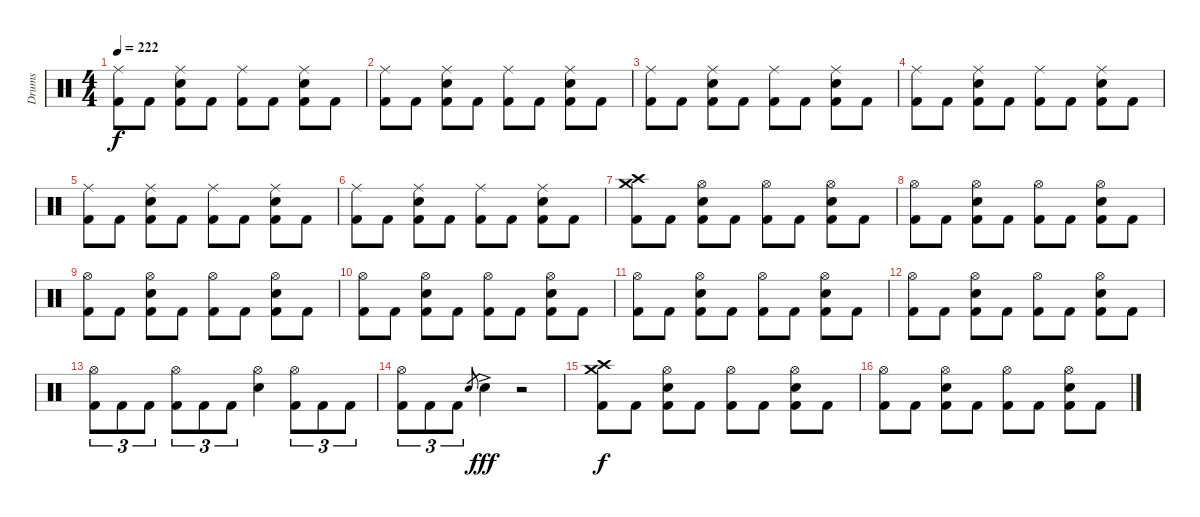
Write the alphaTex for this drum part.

\track ("Drums" "Drums") {instrument percussion}
\staff {score}
\articulation defaults
\ts (4 4)
\tempo 222
\clef neutral
\ks c
("Ride (middle)" "Kick (hit) 2").8{dy f} "Kick (hit) 2".8 ("Ride (middle)" "Electric Snare (hit)" "Kick (hit) 2").8 "Kick (hit) 2".8 ("Ride (middle)" "Kick (hit) 2").8 "Kick (hit) 2".8 ("Ride (middle)" "Electric Snare (hit)" "Kick (hit) 2").8 "Kick (hit) 2".8 |
("Ride (middle)" "Kick (hit) 2").8 "Kick (hit) 2".8 ("Ride (middle)" "Electric Snare (hit)" "Kick (hit) 2").8 "Kick (hit) 2".8 ("Ride (middle)" "Kick (hit) 2").8 "Kick (hit) 2".8 ("Ride (middle)" "Electric Snare (hit)" "Kick (hit) 2").8 "Kick (hit) 2".8 |
("Ride (middle)" "Kick (hit) 2").8 "Kick (hit) 2".8 ("Ride (middle)" "Electric Snare (hit)" "Kick (hit) 2").8 "Kick (hit) 2".8 ("Ride (middle)" "Kick (hit) 2").8 "Kick (hit) 2".8 ("Ride (middle)" "Electric Snare (hit)" "Kick (hit) 2").8 "Kick (hit) 2".8 |
("Ride (middle)" "Kick (hit) 2").8 "Kick (hit) 2".8 ("Ride (middle)" "Electric Snare (hit)" "Kick (hit) 2").8 "Kick (hit) 2".8 ("Ride (middle)" "Kick (hit) 2").8 "Kick (hit) 2".8 ("Ride (middle)" "Electric Snare (hit)" "Kick (hit) 2").8 "Kick (hit) 2".8 |
("Ride (middle)" "Kick (hit) 2").8 "Kick (hit) 2".8 ("Ride (middle)" "Electric Snare (hit)" "Kick (hit) 2").8 "Kick (hit) 2".8 ("Ride (middle)" "Kick (hit) 2").8 "Kick (hit) 2".8 ("Ride (middle)" "Electric Snare (hit)" "Kick (hit) 2").8 "Kick (hit) 2".8 |
("Ride (middle)" "Kick (hit) 2").8 "Kick (hit) 2".8 ("Ride (middle)" "Electric Snare (hit)" "Kick (hit) 2").8 "Kick (hit) 2".8 ("Ride (middle)" "Kick (hit) 2").8 "Kick (hit) 2".8 ("Ride (middle)" "Electric Snare (hit)" "Kick (hit) 2").8 "Kick (hit) 2".8 |
("Crash medium (hit)" "Crash high (hit)" "Kick (hit) 2").8 "Kick (hit) 2".8 ("Hi-Hat (open)" "Electric Snare (hit)" "Kick (hit) 2").8 "Kick (hit) 2".8 ("Hi-Hat (open)" "Kick (hit) 2").8 "Kick (hit) 2".8 ("Hi-Hat (open)" "Electric Snare (hit)" "Kick (hit) 2").8 "Kick (hit) 2".8 |
("Hi-Hat (open)" "Kick (hit) 2").8 "Kick (hit) 2".8 ("Hi-Hat (open)" "Electric Snare (hit)" "Kick (hit) 2").8 "Kick (hit) 2".8 ("Hi-Hat (open)" "Kick (hit) 2").8 "Kick (hit) 2".8 ("Hi-Hat (open)" "Electric Snare (hit)" "Kick (hit) 2").8 "Kick (hit) 2".8 |
("Hi-Hat (open)" "Kick (hit) 2").8 "Kick (hit) 2".8 ("Hi-Hat (open)" "Electric Snare (hit)" "Kick (hit) 2").8 "Kick (hit) 2".8 ("Hi-Hat (open)" "Kick (hit) 2").8 "Kick (hit) 2".8 ("Hi-Hat (open)" "Electric Snare (hit)" "Kick (hit) 2").8 "Kick (hit) 2".8 |
("Hi-Hat (open)" "Kick (hit) 2").8 "Kick (hit) 2".8 ("Hi-Hat (open)" "Electric Snare (hit)" "Kick (hit) 2").8 "Kick (hit) 2".8 ("Hi-Hat (open)" "Kick (hit) 2").8 "Kick (hit) 2".8 ("Hi-Hat (open)" "Electric Snare (hit)" "Kick (hit) 2").8 "Kick (hit) 2".8 |
("Hi-Hat (open)" "Kick (hit) 2").8 "Kick (hit) 2".8 ("Hi-Hat (open)" "Electric Snare (hit)" "Kick (hit) 2").8 "Kick (hit) 2".8 ("Hi-Hat (open)" "Kick (hit) 2").8 "Kick (hit) 2".8 ("Hi-Hat (open)" "Electric Snare (hit)" "Kick (hit) 2").8 "Kick (hit) 2".8 |
("Hi-Hat (open)" "Kick (hit) 2").8 "Kick (hit) 2".8 ("Hi-Hat (open)" "Electric Snare (hit)" "Kick (hit) 2").8 "Kick (hit) 2".8 ("Hi-Hat (open)" "Kick (hit) 2").8 "Kick (hit) 2".8 ("Hi-Hat (open)" "Electric Snare (hit)" "Kick (hit) 2").8 "Kick (hit) 2".8 |
("Hi-Hat (open)" "Kick (hit) 2").8{tu (3 2)} "Kick (hit) 2".8{tu (3 2)} "Kick (hit) 2".8{tu (3 2)} ("Hi-Hat (open)" "Kick (hit) 2").8{tu (3 2)} "Kick (hit) 2".8{tu (3 2)} "Kick (hit) 2".8{tu (3 2)} ("Hi-Hat (open)" "Electric Snare (hit)").4 ("Hi-Hat (open)" "Kick (hit) 2").8{tu (3 2)} "Kick (hit) 2".8{tu (3 2)} "Kick (hit) 2".8{tu (3 2)} |
("Hi-Hat (open)" "Kick (hit) 2").8{tu (3 2)} "Kick (hit) 2".8{tu (3 2)} "Kick (hit) 2".8{tu (3 2)} "Electric Snare (hit)".8{gr} "Electric Snare (hit)"{ac}.4{dy fff} r.2 |
("Crash high (hit)" "Crash medium (hit)" "Kick (hit) 2").8{dy f} "Kick (hit) 2".8 ("Hi-Hat (open)" "Electric Snare (hit)" "Kick (hit) 2").8 "Kick (hit) 2".8 ("Hi-Hat (open)" "Kick (hit) 2").8 "Kick (hit) 2".8 ("Hi-Hat (open)" "Electric Snare (hit)" "Kick (hit) 2").8 "Kick (hit) 2".8 |
("Hi-Hat (open)" "Kick (hit) 2").8 "Kick (hit) 2".8 ("Hi-Hat (open)" "Electric Snare (hit)" "Kick (hit) 2").8 "Kick (hit) 2".8 ("Hi-Hat (open)" "Kick (hit) 2").8 "Kick (hit) 2".8 ("Hi-Hat (open)" "Electric Snare (hit)" "Kick (hit) 2").8 "Kick (hit) 2".8
